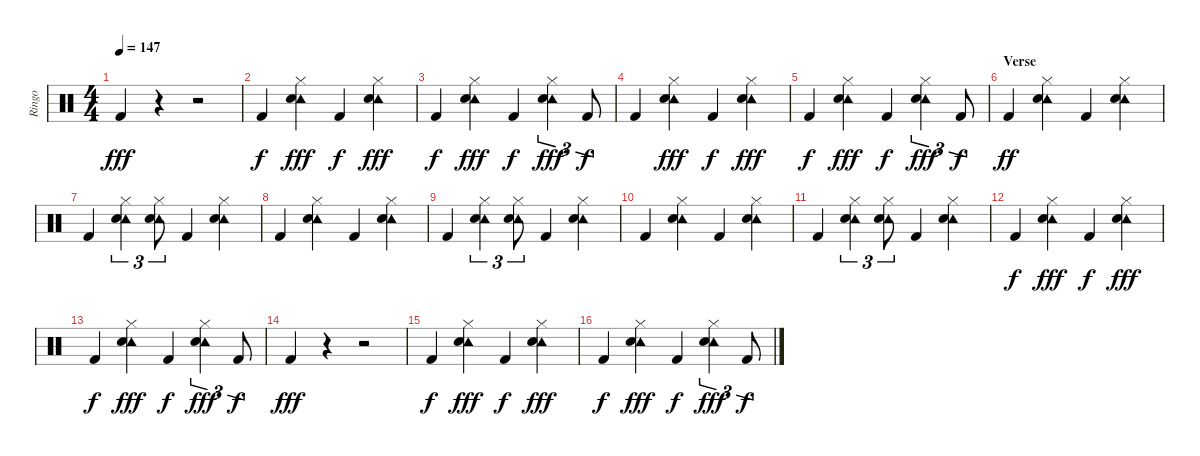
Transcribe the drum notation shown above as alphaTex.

\track ("Ringo" "Ringo") {instrument percussion}
\staff {score}
\articulation defaults
\ts (4 4)
\tempo 147
\clef neutral
\ks c "Kick (hit) 2".4{dy fff}
r.4 r.2 |
"Kick (hit) 2".4{dy f} ("Tambourine (hit)" "Hi-Hat (closed)" "Snare (hit) 2").4{dy fff} "Kick (hit) 2".4{dy f} ("Tambourine (hit)" "Hi-Hat (closed)" "Snare (hit) 2").4{dy fff} |
"Kick (hit) 2".4{dy f} ("Tambourine (hit)" "Hi-Hat (closed)" "Snare (hit) 2").4{dy fff} "Kick (hit) 2".4{dy f} ("Tambourine (hit)" "Hi-Hat (closed)" "Snare (hit) 2").4{tu (3 2) dy fff} "Kick (hit) 2".8{tu (3 2) dy f} |
"Kick (hit) 2".4 ("Tambourine (hit)" "Hi-Hat (closed)" "Snare (hit) 2").4{dy fff} "Kick (hit) 2".4{dy f} ("Tambourine (hit)" "Hi-Hat (closed)" "Snare (hit) 2").4{dy fff} |
"Kick (hit) 2".4{dy f} ("Tambourine (hit)" "Hi-Hat (closed)" "Snare (hit) 2").4{dy fff} "Kick (hit) 2".4{dy f} ("Tambourine (hit)" "Hi-Hat (closed)" "Snare (hit) 2").4{tu (3 2) dy fff} "Kick (hit) 2".8{tu (3 2) dy f} |
\section ("" "Verse")
"Kick (hit) 2".4{dy ff} ("Tambourine (hit)" "Hi-Hat (closed)" "Snare (hit) 2").4 "Kick (hit) 2".4 ("Tambourine (hit)" "Hi-Hat (closed)" "Snare (hit) 2").4 |
"Kick (hit) 2".4 ("Tambourine (hit)" "Hi-Hat (closed)" "Snare (hit) 2").4{tu (3 2)} ("Tambourine (hit)" "Hi-Hat (closed)" "Snare (hit) 2").8{tu (3 2)} "Kick (hit) 2".4 ("Tambourine (hit)" "Hi-Hat (closed)" "Snare (hit) 2").4 |
"Kick (hit) 2".4 ("Tambourine (hit)" "Hi-Hat (closed)" "Snare (hit) 2").4 "Kick (hit) 2".4 ("Tambourine (hit)" "Hi-Hat (closed)" "Snare (hit) 2").4 |
"Kick (hit) 2".4 ("Tambourine (hit)" "Hi-Hat (closed)" "Snare (hit) 2").4{tu (3 2)} ("Tambourine (hit)" "Hi-Hat (closed)" "Snare (hit) 2").8{tu (3 2)} "Kick (hit) 2".4 ("Tambourine (hit)" "Hi-Hat (closed)" "Snare (hit) 2").4 |
"Kick (hit) 2".4 ("Tambourine (hit)" "Hi-Hat (closed)" "Snare (hit) 2").4 "Kick (hit) 2".4 ("Tambourine (hit)" "Hi-Hat (closed)" "Snare (hit) 2").4 |
"Kick (hit) 2".4 ("Tambourine (hit)" "Hi-Hat (closed)" "Snare (hit) 2").4{tu (3 2)} ("Tambourine (hit)" "Hi-Hat (closed)" "Snare (hit) 2").8{tu (3 2)} "Kick (hit) 2".4 ("Tambourine (hit)" "Hi-Hat (closed)" "Snare (hit) 2").4 |
"Kick (hit) 2".4{dy f} ("Tambourine (hit)" "Hi-Hat (closed)" "Snare (hit) 2").4{dy fff} "Kick (hit) 2".4{dy f} ("Tambourine (hit)" "Hi-Hat (closed)" "Snare (hit) 2").4{dy fff} |
"Kick (hit) 2".4{dy f} ("Tambourine (hit)" "Hi-Hat (closed)" "Snare (hit) 2").4{dy fff} "Kick (hit) 2".4{dy f} ("Tambourine (hit)" "Hi-Hat (closed)" "Snare (hit) 2").4{tu (3 2) dy fff} "Kick (hit) 2".8{tu (3 2) dy f} |
"Kick (hit) 2".4{dy fff} r.4 r.2 |
"Kick (hit) 2".4{dy f} ("Tambourine (hit)" "Hi-Hat (closed)" "Snare (hit) 2").4{dy fff} "Kick (hit) 2".4{dy f} ("Tambourine (hit)" "Hi-Hat (closed)" "Snare (hit) 2").4{dy fff} |
"Kick (hit) 2".4{dy f} ("Tambourine (hit)" "Hi-Hat (closed)" "Snare (hit) 2").4{dy fff} "Kick (hit) 2".4{dy f} ("Tambourine (hit)" "Hi-Hat (closed)" "Snare (hit) 2").4{tu (3 2) dy fff} "Kick (hit) 2".8{tu (3 2) dy f}
